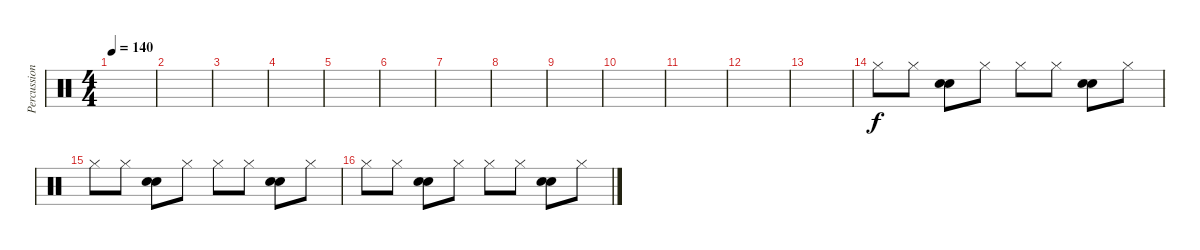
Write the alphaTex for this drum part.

\track ("Percussions" "Percussion") {instrument percussion}
\staff {score}
\articulation defaults
\ts (4 4)
\tempo 140
\clef neutral
\ks c
|
|
|
|
|
|
|
|
|
|
|
|
|
"Hi-Hat (closed)".8 "Hi-Hat (closed)".8 ("Snare (hit) 2" "Electric Snare (hit)").8 "Hi-Hat (closed)".8 "Hi-Hat (closed)".8 "Hi-Hat (closed)".8 ("Snare (hit) 2" "Electric Snare (hit)").8 "Hi-Hat (closed)".8 |
"Hi-Hat (closed)".8 "Hi-Hat (closed)".8 ("Snare (hit) 2" "Electric Snare (hit)").8 "Hi-Hat (closed)".8 "Hi-Hat (closed)".8 "Hi-Hat (closed)".8 ("Snare (hit) 2" "Electric Snare (hit)").8 "Hi-Hat (closed)".8 |
"Hi-Hat (closed)".8 "Hi-Hat (closed)".8 ("Snare (hit) 2" "Electric Snare (hit)").8 "Hi-Hat (closed)".8 "Hi-Hat (closed)".8 "Hi-Hat (closed)".8 ("Snare (hit) 2" "Electric Snare (hit)").8 "Hi-Hat (closed)".8
